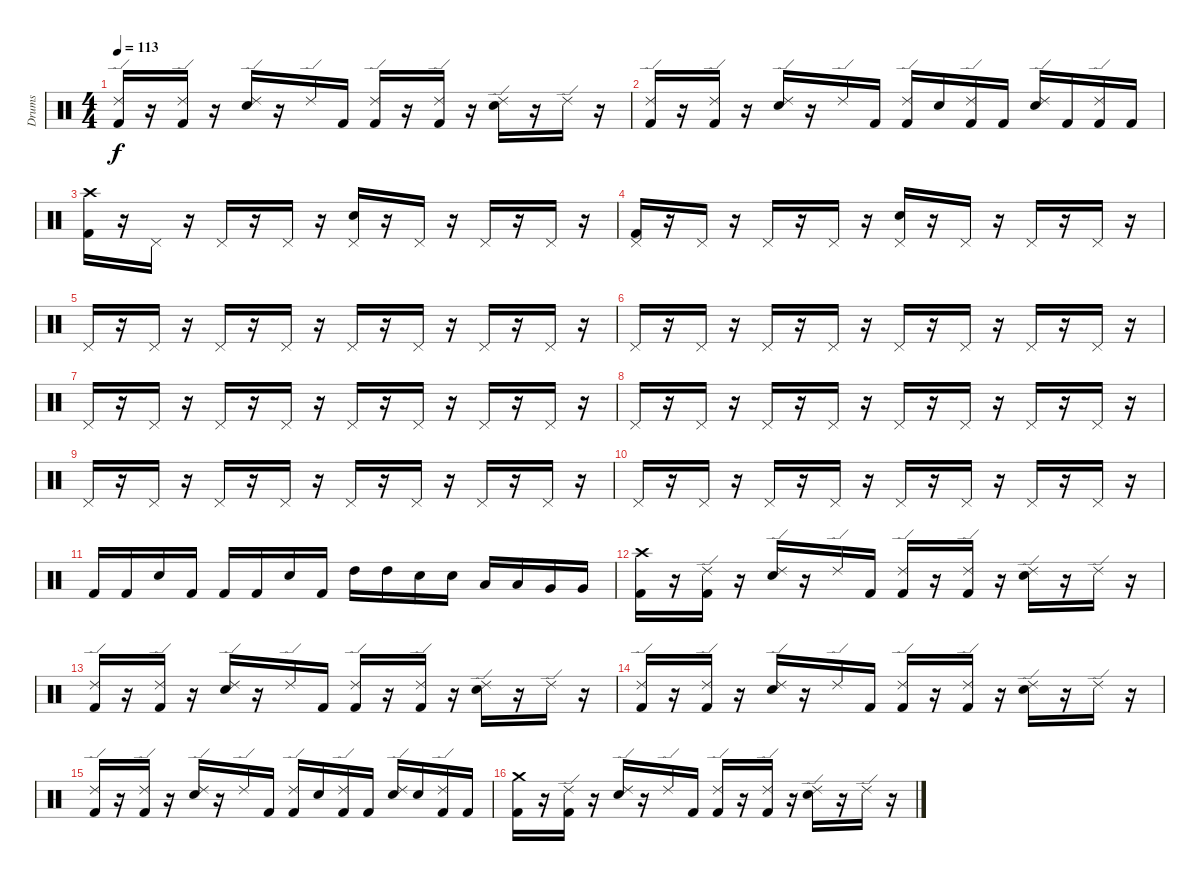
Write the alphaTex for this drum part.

\track ("Drums" "Drums") {instrument percussion}
\staff {score}
\articulation defaults
\ts (4 4)
\tempo 113
\clef neutral
\ks c
("Ride (edge) 2" "Kick (hit) 2").16{dy f} r.16 ("Ride (edge) 2" "Kick (hit) 2").16 r.16 ("Ride (edge) 2" "Snare (hit) 2").16 r.16 "Ride (edge) 2".16 "Kick (hit) 2".16 ("Ride (edge) 2" "Kick (hit) 2").16 r.16 ("Ride (edge) 2" "Kick (hit) 2").16 r.16 ("Ride (edge) 2" "Snare (hit) 2").16 r.16 "Ride (edge) 2".16 r.16 |
("Ride (edge) 2" "Kick (hit) 2").16 r.16 ("Ride (edge) 2" "Kick (hit) 2").16 r.16 ("Ride (edge) 2" "Snare (hit) 2").16 r.16 "Ride (edge) 2".16 "Kick (hit) 2".16 ("Ride (edge) 2" "Kick (hit) 2").16 "Snare (hit) 2".16 ("Ride (edge) 2" "Kick (hit) 2").16 "Kick (hit) 2".16 ("Ride (edge) 2" "Snare (hit) 2").16 "Kick (hit) 2".16 ("Ride (edge) 2" "Kick (hit) 2").16 "Kick (hit) 2".16 |
("Crash high (hit)" "Kick (hit) 2").16 r.16 "Pedal Hi-Hat (hit)".16 r.16 "Pedal Hi-Hat (hit)".16 r.16 "Pedal Hi-Hat (hit)".16 r.16 ("Pedal Hi-Hat (hit)" "Snare (hit) 2").16 r.16 "Pedal Hi-Hat (hit)".16 r.16 "Pedal Hi-Hat (hit)".16 r.16 "Pedal Hi-Hat (hit)".16 r.16 |
("Pedal Hi-Hat (hit)" "Kick (hit) 2").16 r.16 "Pedal Hi-Hat (hit)".16 r.16 "Pedal Hi-Hat (hit)".16 r.16 "Pedal Hi-Hat (hit)".16 r.16 ("Pedal Hi-Hat (hit)" "Snare (hit) 2").16 r.16 "Pedal Hi-Hat (hit)".16 r.16 "Pedal Hi-Hat (hit)".16 r.16 "Pedal Hi-Hat (hit)".16 r.16 |
"Pedal Hi-Hat (hit)".16 r.16 "Pedal Hi-Hat (hit)".16 r.16 "Pedal Hi-Hat (hit)".16 r.16 "Pedal Hi-Hat (hit)".16 r.16 "Pedal Hi-Hat (hit)".16 r.16 "Pedal Hi-Hat (hit)".16 r.16 "Pedal Hi-Hat (hit)".16 r.16 "Pedal Hi-Hat (hit)".16 r.16 |
"Pedal Hi-Hat (hit)".16 r.16 "Pedal Hi-Hat (hit)".16 r.16 "Pedal Hi-Hat (hit)".16 r.16 "Pedal Hi-Hat (hit)".16 r.16 "Pedal Hi-Hat (hit)".16 r.16 "Pedal Hi-Hat (hit)".16 r.16 "Pedal Hi-Hat (hit)".16 r.16 "Pedal Hi-Hat (hit)".16 r.16 |
"Pedal Hi-Hat (hit)".16 r.16 "Pedal Hi-Hat (hit)".16 r.16 "Pedal Hi-Hat (hit)".16 r.16 "Pedal Hi-Hat (hit)".16 r.16 "Pedal Hi-Hat (hit)".16 r.16 "Pedal Hi-Hat (hit)".16 r.16 "Pedal Hi-Hat (hit)".16 r.16 "Pedal Hi-Hat (hit)".16 r.16 |
"Pedal Hi-Hat (hit)".16 r.16 "Pedal Hi-Hat (hit)".16 r.16 "Pedal Hi-Hat (hit)".16 r.16 "Pedal Hi-Hat (hit)".16 r.16 "Pedal Hi-Hat (hit)".16 r.16 "Pedal Hi-Hat (hit)".16 r.16 "Pedal Hi-Hat (hit)".16 r.16 "Pedal Hi-Hat (hit)".16 r.16 |
"Pedal Hi-Hat (hit)".16 r.16 "Pedal Hi-Hat (hit)".16 r.16 "Pedal Hi-Hat (hit)".16 r.16 "Pedal Hi-Hat (hit)".16 r.16 "Pedal Hi-Hat (hit)".16 r.16 "Pedal Hi-Hat (hit)".16 r.16 "Pedal Hi-Hat (hit)".16 r.16 "Pedal Hi-Hat (hit)".16 r.16 |
"Pedal Hi-Hat (hit)".16 r.16 "Pedal Hi-Hat (hit)".16 r.16 "Pedal Hi-Hat (hit)".16 r.16 "Pedal Hi-Hat (hit)".16 r.16 "Pedal Hi-Hat (hit)".16 r.16 "Pedal Hi-Hat (hit)".16 r.16 "Pedal Hi-Hat (hit)".16 r.16 "Pedal Hi-Hat (hit)".16 r.16 |
"Kick (hit) 2".16 "Kick (hit) 2".16 "Snare (hit) 2".16 "Kick (hit) 2".16 "Kick (hit) 2".16 "Kick (hit) 2".16 "Snare (hit) 2".16 "Kick (hit) 2".16 "High Tom (hit)".16 "High Tom (hit)".16 "Snare (hit) 2".16 "Snare (hit) 2".16 "Low Tom (hit)".16 "Low Tom (hit)".16 "Very Low Tom (hit)".16 "Very Low Tom (hit)".16 |
("Crash high (hit)" "Kick (hit) 2").16 r.16 ("Ride (edge) 2" "Kick (hit) 2").16 r.16 ("Ride (edge) 2" "Snare (hit) 2").16 r.16 "Ride (edge) 2".16 "Kick (hit) 2".16 ("Ride (edge) 2" "Kick (hit) 2").16 r.16 ("Ride (edge) 2" "Kick (hit) 2").16 r.16 ("Ride (edge) 2" "Snare (hit) 2").16 r.16 "Ride (edge) 2".16 r.16 |
("Ride (edge) 2" "Kick (hit) 2").16 r.16 ("Ride (edge) 2" "Kick (hit) 2").16 r.16 ("Ride (edge) 2" "Snare (hit) 2").16 r.16 "Ride (edge) 2".16 "Kick (hit) 2".16 ("Ride (edge) 2" "Kick (hit) 2").16 r.16 ("Ride (edge) 2" "Kick (hit) 2").16 r.16 ("Ride (edge) 2" "Snare (hit) 2").16 r.16 "Ride (edge) 2".16 r.16 |
("Ride (edge) 2" "Kick (hit) 2").16 r.16 ("Ride (edge) 2" "Kick (hit) 2").16 r.16 ("Ride (edge) 2" "Snare (hit) 2").16 r.16 "Ride (edge) 2".16 "Kick (hit) 2".16 ("Ride (edge) 2" "Kick (hit) 2").16 r.16 ("Ride (edge) 2" "Kick (hit) 2").16 r.16 ("Ride (edge) 2" "Snare (hit) 2").16 r.16 "Ride (edge) 2".16 r.16 |
("Ride (edge) 2" "Kick (hit) 2").16 r.16 ("Ride (edge) 2" "Kick (hit) 2").16 r.16 ("Ride (edge) 2" "Snare (hit) 2").16 r.16 "Ride (edge) 2".16 "Kick (hit) 2".16 ("Ride (edge) 2" "Kick (hit) 2").16 "Snare (hit) 2".16 ("Ride (edge) 2" "Kick (hit) 2").16 "Kick (hit) 2".16 ("Ride (edge) 2" "Snare (hit) 2").16 "Snare (hit) 2".16 ("Ride (edge) 2" "Kick (hit) 2").16 "Kick (hit) 2".16 |
("Crash medium (hit)" "Kick (hit) 2").16 r.16 ("Ride (edge) 2" "Kick (hit) 2").16 r.16 ("Ride (edge) 2" "Snare (hit) 2").16 r.16 "Ride (edge) 2".16 "Kick (hit) 2".16 ("Ride (edge) 2" "Kick (hit) 2").16 r.16 ("Ride (edge) 2" "Kick (hit) 2").16 r.16 ("Ride (edge) 2" "Snare (hit) 2").16 r.16 "Ride (edge) 2".16 r.16
